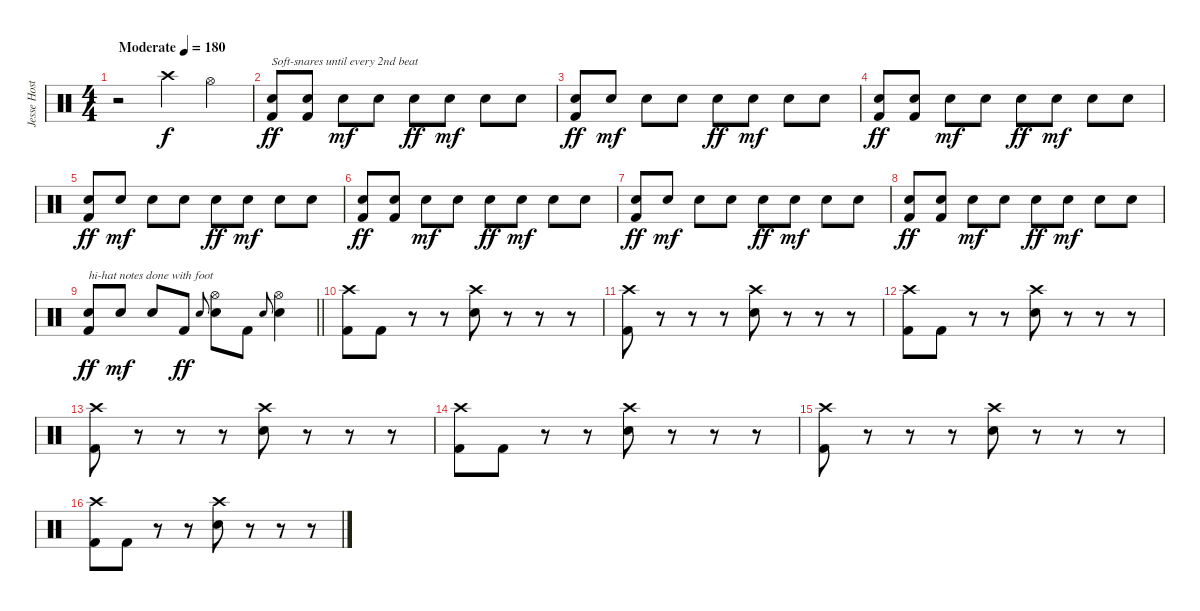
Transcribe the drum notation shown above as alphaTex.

\track ("Jesse Hostetler" "Jesse Host") {instrument percussion}
\staff {score}
\articulation defaults
\ts (4 4)
\tempo (180 "Moderate")
\clef neutral
\ks c
r.2{dy f volume 0} "Crash high (hit)".4{volume 11} "Hi-Hat (open)".4 |
("Electric Snare (hit)" "Kick (hit) 2").8{txt "Soft-snares until every 2nd beat" dy ff} ("Electric Snare (hit)" "Kick (hit) 2").8 "Electric Snare (hit)".8{dy mf} "Electric Snare (hit)".8 "Electric Snare (hit)".8{dy ff} "Electric Snare (hit)".8{dy mf} "Electric Snare (hit)".8 "Electric Snare (hit)".8 |
("Electric Snare (hit)" "Kick (hit) 2").8{dy ff} "Electric Snare (hit)".8{dy mf} "Electric Snare (hit)".8 "Electric Snare (hit)".8 "Electric Snare (hit)".8{dy ff} "Electric Snare (hit)".8{dy mf} "Electric Snare (hit)".8 "Electric Snare (hit)".8 |
("Electric Snare (hit)" "Kick (hit) 2").8{dy ff} ("Electric Snare (hit)" "Kick (hit) 2").8 "Electric Snare (hit)".8{dy mf} "Electric Snare (hit)".8 "Electric Snare (hit)".8{dy ff} "Electric Snare (hit)".8{dy mf} "Electric Snare (hit)".8 "Electric Snare (hit)".8 |
("Electric Snare (hit)" "Kick (hit) 2").8{dy ff} "Electric Snare (hit)".8{dy mf} "Electric Snare (hit)".8 "Electric Snare (hit)".8 "Electric Snare (hit)".8{dy ff} "Electric Snare (hit)".8{dy mf} "Electric Snare (hit)".8 "Electric Snare (hit)".8 |
("Electric Snare (hit)" "Kick (hit) 2").8{dy ff} ("Electric Snare (hit)" "Kick (hit) 2").8 "Electric Snare (hit)".8{dy mf} "Electric Snare (hit)".8 "Electric Snare (hit)".8{dy ff} "Electric Snare (hit)".8{dy mf} "Electric Snare (hit)".8 "Electric Snare (hit)".8 |
("Electric Snare (hit)" "Kick (hit) 2").8{dy ff} "Electric Snare (hit)".8{dy mf} "Electric Snare (hit)".8 "Electric Snare (hit)".8 "Electric Snare (hit)".8{dy ff} "Electric Snare (hit)".8{dy mf} "Electric Snare (hit)".8 "Electric Snare (hit)".8 |
("Electric Snare (hit)" "Kick (hit) 2").8{dy ff} ("Electric Snare (hit)" "Kick (hit) 2").8 "Electric Snare (hit)".8{dy mf} "Electric Snare (hit)".8 "Electric Snare (hit)".8{dy ff} "Electric Snare (hit)".8{dy mf} "Electric Snare (hit)".8 "Electric Snare (hit)".8 |
\barLineRight lightlight
("Electric Snare (hit)" "Kick (hit) 2").8{txt "hi-hat notes done with foot" dy ff} "Electric Snare (hit)".8{dy mf} "Electric Snare (hit)".8 "Kick (hit) 2".8{dy ff} "Electric Snare (hit)".8{gr onbeat} ("Hi-Hat (open)" "Electric Snare (hit)").8 "Kick (hit) 2".8 "Electric Snare (hit)".8{gr onbeat} ("Hi-Hat (open)" "Electric Snare (hit)").4 |
("Crash high (hit)" "Kick (hit) 2").8 "Kick (hit) 2".8 r.8 r.8 ("Crash high (hit)" "Electric Snare (hit)").8 r.8 r.8 r.8 |
("Crash high (hit)" "Kick (hit) 2").8 r.8 r.8 r.8 ("Crash high (hit)" "Electric Snare (hit)").8 r.8 r.8 r.8 |
("Crash high (hit)" "Kick (hit) 2").8 "Kick (hit) 2".8 r.8 r.8 ("Crash high (hit)" "Electric Snare (hit)").8 r.8 r.8 r.8 |
("Crash high (hit)" "Kick (hit) 2").8 r.8 r.8 r.8 ("Crash high (hit)" "Electric Snare (hit)").8 r.8 r.8 r.8 |
("Crash high (hit)" "Kick (hit) 2").8 "Kick (hit) 2".8 r.8 r.8 ("Crash high (hit)" "Electric Snare (hit)").8 r.8 r.8 r.8 |
("Crash high (hit)" "Kick (hit) 2").8 r.8 r.8 r.8 ("Crash high (hit)" "Electric Snare (hit)").8 r.8 r.8 r.8 |
("Crash high (hit)" "Kick (hit) 2").8 "Kick (hit) 2".8 r.8 r.8 ("Crash high (hit)" "Electric Snare (hit)").8 r.8 r.8 r.8
